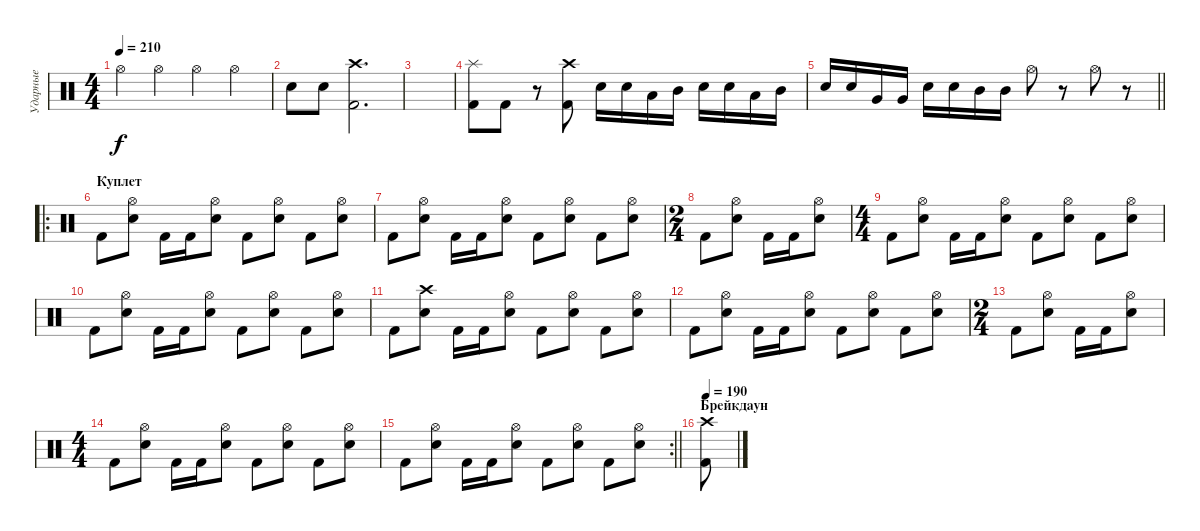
\track ("Ударные" "Ударные") {instrument percussion}
\staff {score}
\articulation defaults
\ts (4 4)
\tempo 210
\clef neutral
\ks c "Hi-Hat (open)".4{dy f} "Hi-Hat (open)".4 "Hi-Hat (open)".4 "Hi-Hat (open)".4
|
"Electric Snare (hit)".8 "Electric Snare (hit)".8 ("Kick (hit) 2" "Crash high (hit)").2{d} |
|
("Kick (hit) 2" "Splash (hit)").8 "Kick (hit) 2".8 r.8 ("Kick (hit) 2" "Crash high (hit)").8 "Electric Snare (hit)".16 "Electric Snare (hit)".16 "Low Tom (hit)".16 "Mid Tom (hit)".16 "Electric Snare (hit)".16 "Electric Snare (hit)".16 "Low Tom (hit)".16 "Mid Tom (hit)".16 |
\barLineRight lightlight "Electric Snare (hit)".16 "Electric Snare (hit)".16 "Very Low Tom (hit)".16 "Very Low Tom (hit)".16 "Electric Snare (hit)".16 "Electric Snare (hit)".16 "Mid Tom (hit)".16 "Mid Tom (hit)".16 "Hi-Hat (open)".8
r.8 "Hi-Hat (open)".8 r.8 |
\ro
\section ("" "Куплет")
"Kick (hit) 2".8 ("Electric Snare (hit)" "Hi-Hat (open)").8 "Kick (hit) 2".16 "Kick (hit) 2".16 ("Electric Snare (hit)" "Hi-Hat (open)").8 "Kick (hit) 2".8 ("Electric Snare (hit)" "Hi-Hat (open)").8 "Kick (hit) 2".8 ("Electric Snare (hit)" "Hi-Hat (open)").8 |
"Kick (hit) 2".8 ("Electric Snare (hit)" "Hi-Hat (open)").8 "Kick (hit) 2".16 "Kick (hit) 2".16 ("Electric Snare (hit)" "Hi-Hat (open)").8 "Kick (hit) 2".8 ("Electric Snare (hit)" "Hi-Hat (open)").8 "Kick (hit) 2".8 ("Electric Snare (hit)" "Hi-Hat (open)").8 |
\ts (2 4)
"Kick (hit) 2".8 ("Electric Snare (hit)" "Hi-Hat (open)").8 "Kick (hit) 2".16 "Kick (hit) 2".16 ("Electric Snare (hit)" "Hi-Hat (open)").8 |
\ts (4 4)
"Kick (hit) 2".8 ("Electric Snare (hit)" "Hi-Hat (open)").8 "Kick (hit) 2".16 "Kick (hit) 2".16 ("Electric Snare (hit)" "Hi-Hat (open)").8 "Kick (hit) 2".8 ("Electric Snare (hit)" "Hi-Hat (open)").8 "Kick (hit) 2".8 ("Electric Snare (hit)" "Hi-Hat (open)").8 |
"Kick (hit) 2".8 ("Electric Snare (hit)" "Hi-Hat (open)").8 "Kick (hit) 2".16 "Kick (hit) 2".16 ("Electric Snare (hit)" "Hi-Hat (open)").8 "Kick (hit) 2".8 ("Electric Snare (hit)" "Hi-Hat (open)").8 "Kick (hit) 2".8 ("Electric Snare (hit)" "Hi-Hat (open)").8 |
"Kick (hit) 2".8 ("Electric Snare (hit)" "Crash high (hit)").8 "Kick (hit) 2".16 "Kick (hit) 2".16 ("Electric Snare (hit)" "Hi-Hat (open)").8 "Kick (hit) 2".8 ("Electric Snare (hit)" "Hi-Hat (open)").8 "Kick (hit) 2".8 ("Electric Snare (hit)" "Hi-Hat (open)").8 |
"Kick (hit) 2".8 ("Electric Snare (hit)" "Hi-Hat (open)").8 "Kick (hit) 2".16 "Kick (hit) 2".16 ("Electric Snare (hit)" "Hi-Hat (open)").8 "Kick (hit) 2".8 ("Electric Snare (hit)" "Hi-Hat (open)").8 "Kick (hit) 2".8 ("Electric Snare (hit)" "Hi-Hat (open)").8 |
\ts (2 4)
"Kick (hit) 2".8 ("Electric Snare (hit)" "Hi-Hat (open)").8 "Kick (hit) 2".16 "Kick (hit) 2".16 ("Electric Snare (hit)" "Hi-Hat (open)").8 |
\ts (4 4)
"Kick (hit) 2".8 ("Electric Snare (hit)" "Hi-Hat (open)").8 "Kick (hit) 2".16 "Kick (hit) 2".16 ("Electric Snare (hit)" "Hi-Hat (open)").8 "Kick (hit) 2".8 ("Electric Snare (hit)" "Hi-Hat (open)").8 "Kick (hit) 2".8 ("Electric Snare (hit)" "Hi-Hat (open)").8 |
\rc 2
\barLineRight lightlight "Kick (hit) 2".8
("Electric Snare (hit)" "Hi-Hat (open)").8 "Kick (hit) 2".16 "Kick (hit) 2".16 ("Electric Snare (hit)" "Hi-Hat (open)").8 "Kick (hit) 2".8 ("Electric Snare (hit)" "Hi-Hat (open)").8 "Kick (hit) 2".8 ("Electric Snare (hit)" "Hi-Hat (open)").8 |
\section ("" "Брейкдаун")
\tempo 190
("Kick (hit) 2" "Crash high (hit)").8
